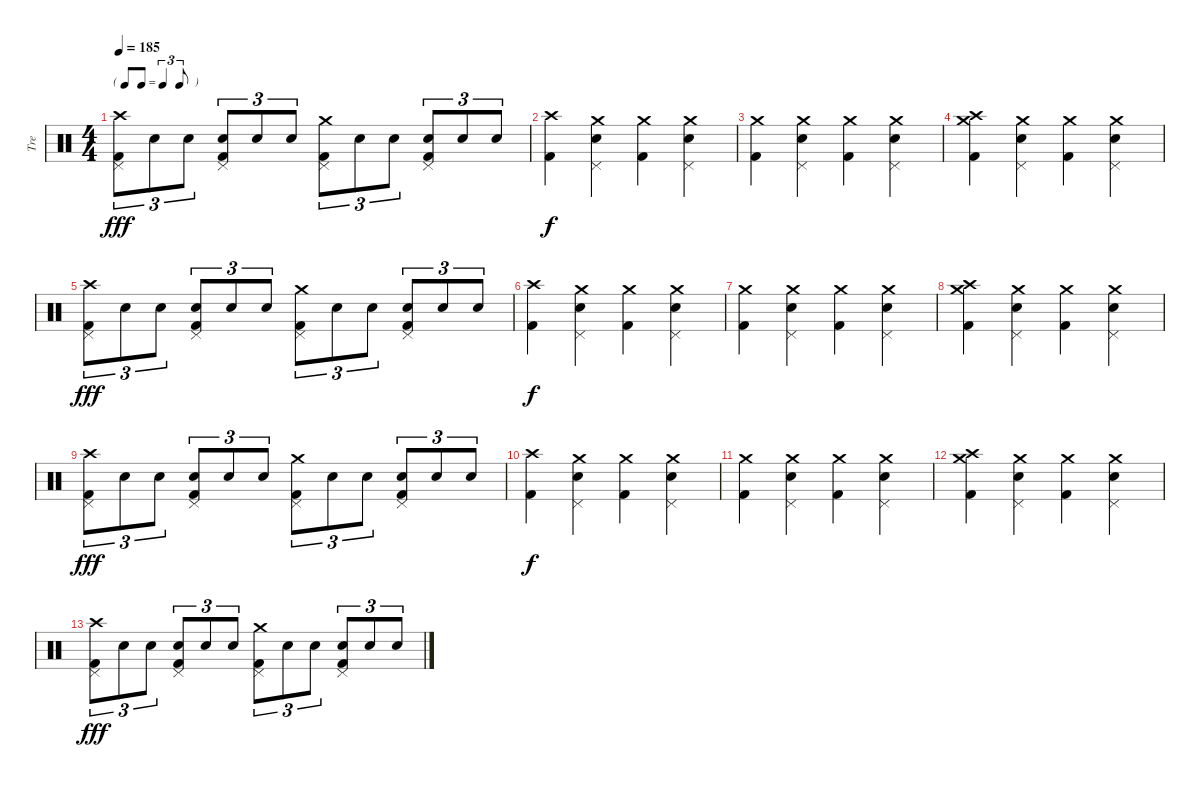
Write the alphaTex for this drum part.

\track ("Tre" "Tre") {instrument percussion}
\staff {score}
\articulation defaults
\ts (4 4)
\tf triplet8th
\tempo 185
\clef neutral
\ks c
("Crash high (hit)" "Pedal Hi-Hat (hit)" "Kick (hit) 2").8{tu (3 2) dy fff} "Snare (hit) 2".8{tu (3 2)} "Snare (hit) 2".8{tu (3 2)} ("Snare (hit) 2" "Pedal Hi-Hat (hit)" "Kick (hit) 2").8{tu (3 2)} "Snare (hit) 2".8{tu (3 2)} "Snare (hit) 2".8{tu (3 2)} ("Crash medium (hit)" "Pedal Hi-Hat (hit)" "Kick (hit) 2").8{tu (3 2)} "Snare (hit) 2".8{tu (3 2)} "Snare (hit) 2".8{tu (3 2)} ("Snare (hit) 2" "Pedal Hi-Hat (hit)" "Kick (hit) 2").8{tu (3 2)} "Snare (hit) 2".8{tu (3 2)} "Snare (hit) 2".8{tu (3 2)} |
("Crash high (hit)" "Kick (hit) 2").4{dy f} ("Crash medium (hit)" "Snare (hit) 2" "Pedal Hi-Hat (hit)").4 ("Crash medium (hit)" "Kick (hit) 2").4 ("Crash medium (hit)" "Snare (hit) 2" "Pedal Hi-Hat (hit)").4 |
("Crash medium (hit)" "Kick (hit) 2").4 ("Crash medium (hit)" "Snare (hit) 2" "Pedal Hi-Hat (hit)").4 ("Crash medium (hit)" "Kick (hit) 2").4 ("Crash medium (hit)" "Snare (hit) 2" "Pedal Hi-Hat (hit)").4 |
("Crash medium (hit)" "Crash high (hit)" "Kick (hit) 2").4 ("Crash medium (hit)" "Snare (hit) 2" "Pedal Hi-Hat (hit)").4 ("Crash medium (hit)" "Kick (hit) 2").4 ("Crash medium (hit)" "Snare (hit) 2" "Pedal Hi-Hat (hit)").4 |
("Crash high (hit)" "Pedal Hi-Hat (hit)" "Kick (hit) 2").8{tu (3 2) dy fff} "Snare (hit) 2".8{tu (3 2)} "Snare (hit) 2".8{tu (3 2)} ("Snare (hit) 2" "Pedal Hi-Hat (hit)" "Kick (hit) 2").8{tu (3 2)} "Snare (hit) 2".8{tu (3 2)} "Snare (hit) 2".8{tu (3 2)} ("Crash medium (hit)" "Pedal Hi-Hat (hit)" "Kick (hit) 2").8{tu (3 2)} "Snare (hit) 2".8{tu (3 2)} "Snare (hit) 2".8{tu (3 2)} ("Snare (hit) 2" "Pedal Hi-Hat (hit)" "Kick (hit) 2").8{tu (3 2)} "Snare (hit) 2".8{tu (3 2)} "Snare (hit) 2".8{tu (3 2)} |
("Crash high (hit)" "Kick (hit) 2").4{dy f} ("Crash medium (hit)" "Snare (hit) 2" "Pedal Hi-Hat (hit)").4 ("Crash medium (hit)" "Kick (hit) 2").4 ("Crash medium (hit)" "Snare (hit) 2" "Pedal Hi-Hat (hit)").4 |
("Crash medium (hit)" "Kick (hit) 2").4 ("Crash medium (hit)" "Snare (hit) 2" "Pedal Hi-Hat (hit)").4 ("Crash medium (hit)" "Kick (hit) 2").4 ("Crash medium (hit)" "Snare (hit) 2" "Pedal Hi-Hat (hit)").4 |
("Crash medium (hit)" "Crash high (hit)" "Kick (hit) 2").4 ("Crash medium (hit)" "Snare (hit) 2" "Pedal Hi-Hat (hit)").4 ("Crash medium (hit)" "Kick (hit) 2").4 ("Crash medium (hit)" "Snare (hit) 2" "Pedal Hi-Hat (hit)").4 |
("Crash high (hit)" "Pedal Hi-Hat (hit)" "Kick (hit) 2").8{tu (3 2) dy fff} "Snare (hit) 2".8{tu (3 2)} "Snare (hit) 2".8{tu (3 2)} ("Snare (hit) 2" "Pedal Hi-Hat (hit)" "Kick (hit) 2").8{tu (3 2)} "Snare (hit) 2".8{tu (3 2)} "Snare (hit) 2".8{tu (3 2)} ("Crash medium (hit)" "Pedal Hi-Hat (hit)" "Kick (hit) 2").8{tu (3 2)} "Snare (hit) 2".8{tu (3 2)} "Snare (hit) 2".8{tu (3 2)} ("Snare (hit) 2" "Pedal Hi-Hat (hit)" "Kick (hit) 2").8{tu (3 2)} "Snare (hit) 2".8{tu (3 2)} "Snare (hit) 2".8{tu (3 2)} |
("Crash high (hit)" "Kick (hit) 2").4{dy f} ("Crash medium (hit)" "Snare (hit) 2" "Pedal Hi-Hat (hit)").4 ("Crash medium (hit)" "Kick (hit) 2").4 ("Crash medium (hit)" "Snare (hit) 2" "Pedal Hi-Hat (hit)").4 |
("Crash medium (hit)" "Kick (hit) 2").4 ("Crash medium (hit)" "Snare (hit) 2" "Pedal Hi-Hat (hit)").4 ("Crash medium (hit)" "Kick (hit) 2").4 ("Crash medium (hit)" "Snare (hit) 2" "Pedal Hi-Hat (hit)").4 |
("Crash medium (hit)" "Crash high (hit)" "Kick (hit) 2").4 ("Crash medium (hit)" "Snare (hit) 2" "Pedal Hi-Hat (hit)").4 ("Crash medium (hit)" "Kick (hit) 2").4 ("Crash medium (hit)" "Snare (hit) 2" "Pedal Hi-Hat (hit)").4 |
("Crash high (hit)" "Pedal Hi-Hat (hit)" "Kick (hit) 2").8{tu (3 2) dy fff} "Snare (hit) 2".8{tu (3 2)} "Snare (hit) 2".8{tu (3 2)} ("Snare (hit) 2" "Pedal Hi-Hat (hit)" "Kick (hit) 2").8{tu (3 2)} "Snare (hit) 2".8{tu (3 2)} "Snare (hit) 2".8{tu (3 2)} ("Crash medium (hit)" "Pedal Hi-Hat (hit)" "Kick (hit) 2").8{tu (3 2)} "Snare (hit) 2".8{tu (3 2)} "Snare (hit) 2".8{tu (3 2)} ("Snare (hit) 2" "Pedal Hi-Hat (hit)" "Kick (hit) 2").8{tu (3 2)} "Snare (hit) 2".8{tu (3 2)} "Snare (hit) 2".8{tu (3 2)}
